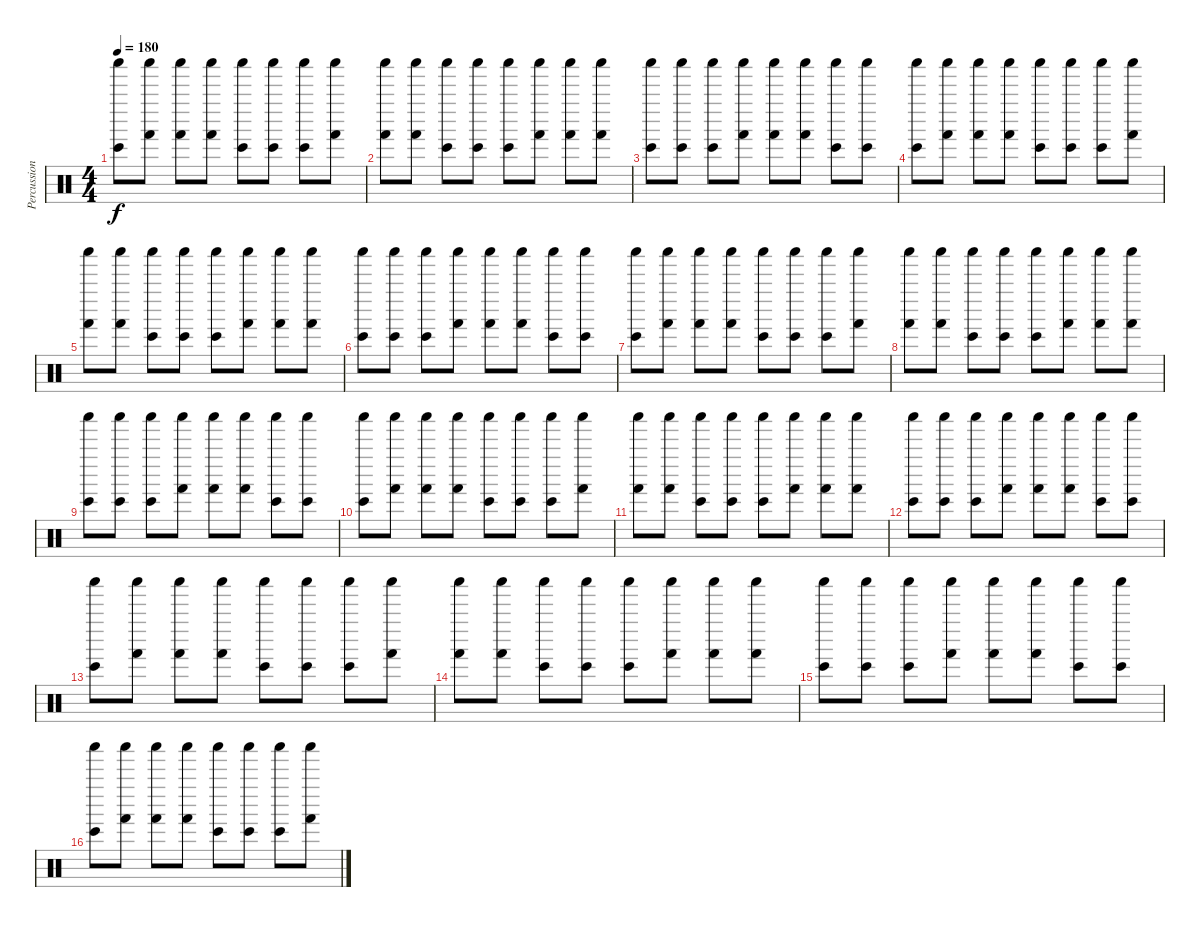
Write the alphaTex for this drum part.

\track ("Percussion" "Percussion") {instrument percussion}
\staff {score}
\articulation defaults
\ts (4 4)
\tempo 180
\clef neutral
\ks c
("Shaker (hit)" "Bongo High (hit)").8{dy f} ("Shaker (hit)" "Hand (hit)").8 ("Shaker (hit)" "Hand (hit)").8 ("Shaker (hit)" "Hand (hit)").8 ("Shaker (hit)" "Bongo High (hit)").8 ("Shaker (hit)" "Bongo High (hit)").8 ("Shaker (hit)" "Bongo High (hit)").8 ("Shaker (hit)" "Hand (hit)").8 |
("Shaker (hit)" "Hand (hit)").8 ("Shaker (hit)" "Hand (hit)").8 ("Shaker (hit)" "Bongo High (hit)").8 ("Shaker (hit)" "Bongo High (hit)").8 ("Shaker (hit)" "Bongo High (hit)").8 ("Shaker (hit)" "Hand (hit)").8 ("Shaker (hit)" "Hand (hit)").8 ("Shaker (hit)" "Hand (hit)").8 |
("Shaker (hit)" "Bongo High (hit)").8 ("Shaker (hit)" "Bongo High (hit)").8 ("Shaker (hit)" "Bongo High (hit)").8 ("Shaker (hit)" "Hand (hit)").8 ("Shaker (hit)" "Hand (hit)").8 ("Shaker (hit)" "Hand (hit)").8 ("Shaker (hit)" "Bongo High (hit)").8 ("Shaker (hit)" "Bongo High (hit)").8 |
("Shaker (hit)" "Bongo High (hit)").8 ("Shaker (hit)" "Hand (hit)").8 ("Shaker (hit)" "Hand (hit)").8 ("Shaker (hit)" "Hand (hit)").8 ("Shaker (hit)" "Bongo High (hit)").8 ("Shaker (hit)" "Bongo High (hit)").8 ("Shaker (hit)" "Bongo High (hit)").8 ("Shaker (hit)" "Hand (hit)").8 |
("Shaker (hit)" "Hand (hit)").8 ("Shaker (hit)" "Hand (hit)").8 ("Shaker (hit)" "Bongo High (hit)").8 ("Shaker (hit)" "Bongo High (hit)").8 ("Shaker (hit)" "Bongo High (hit)").8 ("Shaker (hit)" "Hand (hit)").8 ("Shaker (hit)" "Hand (hit)").8 ("Shaker (hit)" "Hand (hit)").8 |
("Shaker (hit)" "Bongo High (hit)").8 ("Shaker (hit)" "Bongo High (hit)").8 ("Shaker (hit)" "Bongo High (hit)").8 ("Shaker (hit)" "Hand (hit)").8 ("Shaker (hit)" "Hand (hit)").8 ("Shaker (hit)" "Hand (hit)").8 ("Shaker (hit)" "Bongo High (hit)").8 ("Shaker (hit)" "Bongo High (hit)").8 |
("Shaker (hit)" "Bongo High (hit)").8 ("Shaker (hit)" "Hand (hit)").8 ("Shaker (hit)" "Hand (hit)").8 ("Shaker (hit)" "Hand (hit)").8 ("Shaker (hit)" "Bongo High (hit)").8 ("Shaker (hit)" "Bongo High (hit)").8 ("Shaker (hit)" "Bongo High (hit)").8 ("Shaker (hit)" "Hand (hit)").8 |
("Shaker (hit)" "Hand (hit)").8 ("Shaker (hit)" "Hand (hit)").8 ("Shaker (hit)" "Bongo High (hit)").8 ("Shaker (hit)" "Bongo High (hit)").8 ("Shaker (hit)" "Bongo High (hit)").8 ("Shaker (hit)" "Hand (hit)").8 ("Shaker (hit)" "Hand (hit)").8 ("Shaker (hit)" "Hand (hit)").8 |
("Shaker (hit)" "Bongo High (hit)").8 ("Shaker (hit)" "Bongo High (hit)").8 ("Shaker (hit)" "Bongo High (hit)").8 ("Shaker (hit)" "Hand (hit)").8 ("Shaker (hit)" "Hand (hit)").8 ("Shaker (hit)" "Hand (hit)").8 ("Shaker (hit)" "Bongo High (hit)").8 ("Shaker (hit)" "Bongo High (hit)").8 |
("Shaker (hit)" "Bongo High (hit)").8 ("Shaker (hit)" "Hand (hit)").8 ("Shaker (hit)" "Hand (hit)").8 ("Shaker (hit)" "Hand (hit)").8 ("Shaker (hit)" "Bongo High (hit)").8 ("Shaker (hit)" "Bongo High (hit)").8 ("Shaker (hit)" "Bongo High (hit)").8 ("Shaker (hit)" "Hand (hit)").8 |
("Shaker (hit)" "Hand (hit)").8 ("Shaker (hit)" "Hand (hit)").8 ("Shaker (hit)" "Bongo High (hit)").8 ("Shaker (hit)" "Bongo High (hit)").8 ("Shaker (hit)" "Bongo High (hit)").8 ("Shaker (hit)" "Hand (hit)").8 ("Shaker (hit)" "Hand (hit)").8 ("Shaker (hit)" "Hand (hit)").8 |
("Shaker (hit)" "Bongo High (hit)").8 ("Shaker (hit)" "Bongo High (hit)").8 ("Shaker (hit)" "Bongo High (hit)").8 ("Shaker (hit)" "Hand (hit)").8 ("Shaker (hit)" "Hand (hit)").8 ("Shaker (hit)" "Hand (hit)").8 ("Shaker (hit)" "Bongo High (hit)").8 ("Shaker (hit)" "Bongo High (hit)").8 |
("Shaker (hit)" "Bongo High (hit)").8 ("Shaker (hit)" "Hand (hit)").8 ("Shaker (hit)" "Hand (hit)").8 ("Shaker (hit)" "Hand (hit)").8 ("Shaker (hit)" "Bongo High (hit)").8 ("Shaker (hit)" "Bongo High (hit)").8 ("Shaker (hit)" "Bongo High (hit)").8 ("Shaker (hit)" "Hand (hit)").8 |
("Shaker (hit)" "Hand (hit)").8 ("Shaker (hit)" "Hand (hit)").8 ("Shaker (hit)" "Bongo High (hit)").8 ("Shaker (hit)" "Bongo High (hit)").8 ("Shaker (hit)" "Bongo High (hit)").8 ("Shaker (hit)" "Hand (hit)").8 ("Shaker (hit)" "Hand (hit)").8 ("Shaker (hit)" "Hand (hit)").8 |
("Shaker (hit)" "Bongo High (hit)").8 ("Shaker (hit)" "Bongo High (hit)").8 ("Shaker (hit)" "Bongo High (hit)").8 ("Shaker (hit)" "Hand (hit)").8 ("Shaker (hit)" "Hand (hit)").8 ("Shaker (hit)" "Hand (hit)").8 ("Shaker (hit)" "Bongo High (hit)").8 ("Shaker (hit)" "Bongo High (hit)").8 |
("Shaker (hit)" "Bongo High (hit)").8 ("Shaker (hit)" "Hand (hit)").8 ("Shaker (hit)" "Hand (hit)").8 ("Shaker (hit)" "Hand (hit)").8 ("Shaker (hit)" "Bongo High (hit)").8 ("Shaker (hit)" "Bongo High (hit)").8 ("Shaker (hit)" "Bongo High (hit)").8 ("Shaker (hit)" "Hand (hit)").8
